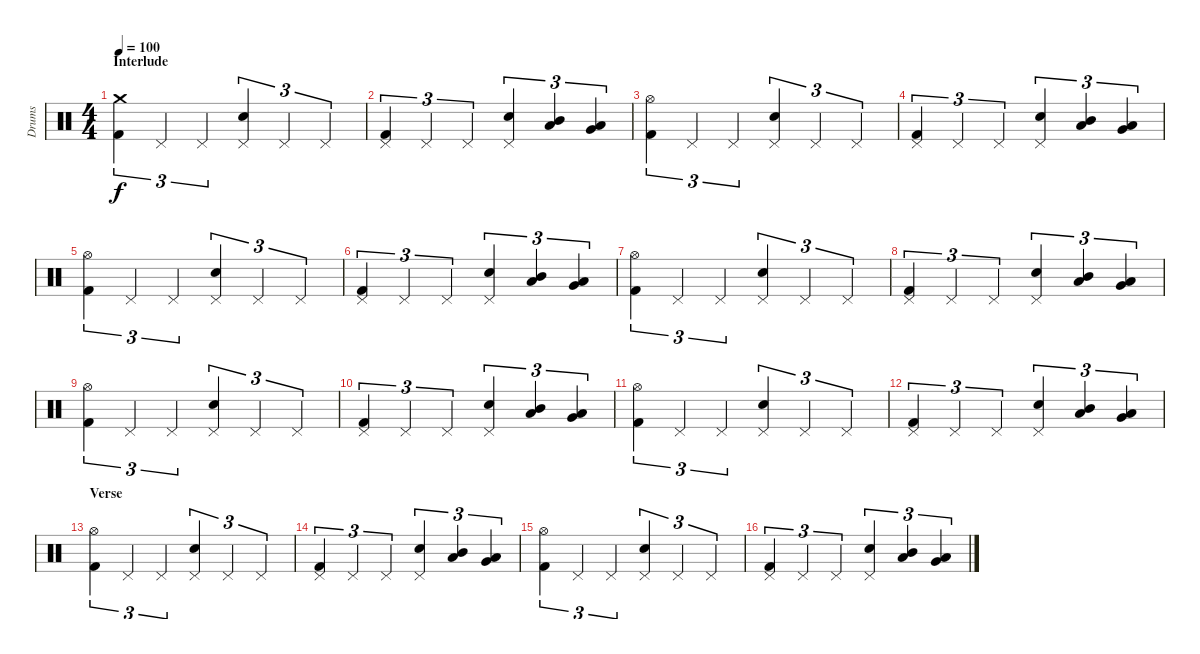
\track ("Drums" "Drums") {instrument percussion}
\staff {score}
\articulation defaults
\ts (4 4)
\section ("" "Interlude")
\tempo 100
\clef neutral
\ks c
("Crash medium (hit)" "Kick (hit) 2").4{tu (3 2) dy f} "Pedal Hi-Hat (hit)".4{tu (3 2)} "Pedal Hi-Hat (hit)".4{tu (3 2)} ("Pedal Hi-Hat (hit)" "Electric Snare (hit)").4{tu (3 2)} "Pedal Hi-Hat (hit)".4{tu (3 2)} "Pedal Hi-Hat (hit)".4{tu (3 2)} |
("Pedal Hi-Hat (hit)" "Kick (hit) 2").4{tu (3 2)} "Pedal Hi-Hat (hit)".4{tu (3 2)} "Pedal Hi-Hat (hit)".4{tu (3 2)} ("Pedal Hi-Hat (hit)" "Electric Snare (hit)").4{tu (3 2)} ("Low Tom (hit)" "Mid Tom (hit)").4{tu (3 2)} ("Very Low Tom (hit)" "Low Tom (hit)").4{tu (3 2)} |
("Hi-Hat (open)" "Kick (hit) 2").4{tu (3 2)} "Pedal Hi-Hat (hit)".4{tu (3 2)} "Pedal Hi-Hat (hit)".4{tu (3 2)} ("Pedal Hi-Hat (hit)" "Electric Snare (hit)").4{tu (3 2)} "Pedal Hi-Hat (hit)".4{tu (3 2)} "Pedal Hi-Hat (hit)".4{tu (3 2)} |
("Pedal Hi-Hat (hit)" "Kick (hit) 2").4{tu (3 2)} "Pedal Hi-Hat (hit)".4{tu (3 2)} "Pedal Hi-Hat (hit)".4{tu (3 2)} ("Pedal Hi-Hat (hit)" "Electric Snare (hit)").4{tu (3 2)} ("Low Tom (hit)" "Mid Tom (hit)").4{tu (3 2)} ("Very Low Tom (hit)" "Low Tom (hit)").4{tu (3 2)} |
("Hi-Hat (open)" "Kick (hit) 2").4{tu (3 2)} "Pedal Hi-Hat (hit)".4{tu (3 2)} "Pedal Hi-Hat (hit)".4{tu (3 2)} ("Pedal Hi-Hat (hit)" "Electric Snare (hit)").4{tu (3 2)} "Pedal Hi-Hat (hit)".4{tu (3 2)} "Pedal Hi-Hat (hit)".4{tu (3 2)} |
("Pedal Hi-Hat (hit)" "Kick (hit) 2").4{tu (3 2)} "Pedal Hi-Hat (hit)".4{tu (3 2)} "Pedal Hi-Hat (hit)".4{tu (3 2)} ("Pedal Hi-Hat (hit)" "Electric Snare (hit)").4{tu (3 2)} ("Low Tom (hit)" "Mid Tom (hit)").4{tu (3 2)} ("Very Low Tom (hit)" "Low Tom (hit)").4{tu (3 2)} |
("Hi-Hat (open)" "Kick (hit) 2").4{tu (3 2)} "Pedal Hi-Hat (hit)".4{tu (3 2)} "Pedal Hi-Hat (hit)".4{tu (3 2)} ("Pedal Hi-Hat (hit)" "Electric Snare (hit)").4{tu (3 2)} "Pedal Hi-Hat (hit)".4{tu (3 2)} "Pedal Hi-Hat (hit)".4{tu (3 2)} |
("Pedal Hi-Hat (hit)" "Kick (hit) 2").4{tu (3 2)} "Pedal Hi-Hat (hit)".4{tu (3 2)} "Pedal Hi-Hat (hit)".4{tu (3 2)} ("Pedal Hi-Hat (hit)" "Electric Snare (hit)").4{tu (3 2)} ("Low Tom (hit)" "Mid Tom (hit)").4{tu (3 2)} ("Very Low Tom (hit)" "Low Tom (hit)").4{tu (3 2)} |
("Hi-Hat (open)" "Kick (hit) 2").4{tu (3 2)} "Pedal Hi-Hat (hit)".4{tu (3 2)} "Pedal Hi-Hat (hit)".4{tu (3 2)} ("Pedal Hi-Hat (hit)" "Electric Snare (hit)").4{tu (3 2)} "Pedal Hi-Hat (hit)".4{tu (3 2)} "Pedal Hi-Hat (hit)".4{tu (3 2)} |
("Pedal Hi-Hat (hit)" "Kick (hit) 2").4{tu (3 2)} "Pedal Hi-Hat (hit)".4{tu (3 2)} "Pedal Hi-Hat (hit)".4{tu (3 2)} ("Pedal Hi-Hat (hit)" "Electric Snare (hit)").4{tu (3 2)} ("Low Tom (hit)" "Mid Tom (hit)").4{tu (3 2)} ("Very Low Tom (hit)" "Low Tom (hit)").4{tu (3 2)} |
("Hi-Hat (open)" "Kick (hit) 2").4{tu (3 2)} "Pedal Hi-Hat (hit)".4{tu (3 2)} "Pedal Hi-Hat (hit)".4{tu (3 2)} ("Pedal Hi-Hat (hit)" "Electric Snare (hit)").4{tu (3 2)} "Pedal Hi-Hat (hit)".4{tu (3 2)} "Pedal Hi-Hat (hit)".4{tu (3 2)} |
("Pedal Hi-Hat (hit)" "Kick (hit) 2").4{tu (3 2)} "Pedal Hi-Hat (hit)".4{tu (3 2)} "Pedal Hi-Hat (hit)".4{tu (3 2)} ("Pedal Hi-Hat (hit)" "Electric Snare (hit)").4{tu (3 2)} ("Low Tom (hit)" "Mid Tom (hit)").4{tu (3 2)} ("Very Low Tom (hit)" "Low Tom (hit)").4{tu (3 2)} |
\section ("" "Verse")
("Hi-Hat (open)" "Kick (hit) 2").4{tu (3 2)} "Pedal Hi-Hat (hit)".4{tu (3 2)} "Pedal Hi-Hat (hit)".4{tu (3 2)} ("Pedal Hi-Hat (hit)" "Electric Snare (hit)").4{tu (3 2)} "Pedal Hi-Hat (hit)".4{tu (3 2)} "Pedal Hi-Hat (hit)".4{tu (3 2)} |
("Pedal Hi-Hat (hit)" "Kick (hit) 2").4{tu (3 2)} "Pedal Hi-Hat (hit)".4{tu (3 2)} "Pedal Hi-Hat (hit)".4{tu (3 2)} ("Pedal Hi-Hat (hit)" "Electric Snare (hit)").4{tu (3 2)} ("Low Tom (hit)" "Mid Tom (hit)").4{tu (3 2)} ("Very Low Tom (hit)" "Low Tom (hit)").4{tu (3 2)} |
("Hi-Hat (open)" "Kick (hit) 2").4{tu (3 2)} "Pedal Hi-Hat (hit)".4{tu (3 2)} "Pedal Hi-Hat (hit)".4{tu (3 2)} ("Pedal Hi-Hat (hit)" "Electric Snare (hit)").4{tu (3 2)} "Pedal Hi-Hat (hit)".4{tu (3 2)} "Pedal Hi-Hat (hit)".4{tu (3 2)} |
("Pedal Hi-Hat (hit)" "Kick (hit) 2").4{tu (3 2)} "Pedal Hi-Hat (hit)".4{tu (3 2)} "Pedal Hi-Hat (hit)".4{tu (3 2)} ("Pedal Hi-Hat (hit)" "Electric Snare (hit)").4{tu (3 2)} ("Low Tom (hit)" "Mid Tom (hit)").4{tu (3 2)} ("Very Low Tom (hit)" "Low Tom (hit)").4{tu (3 2)}
